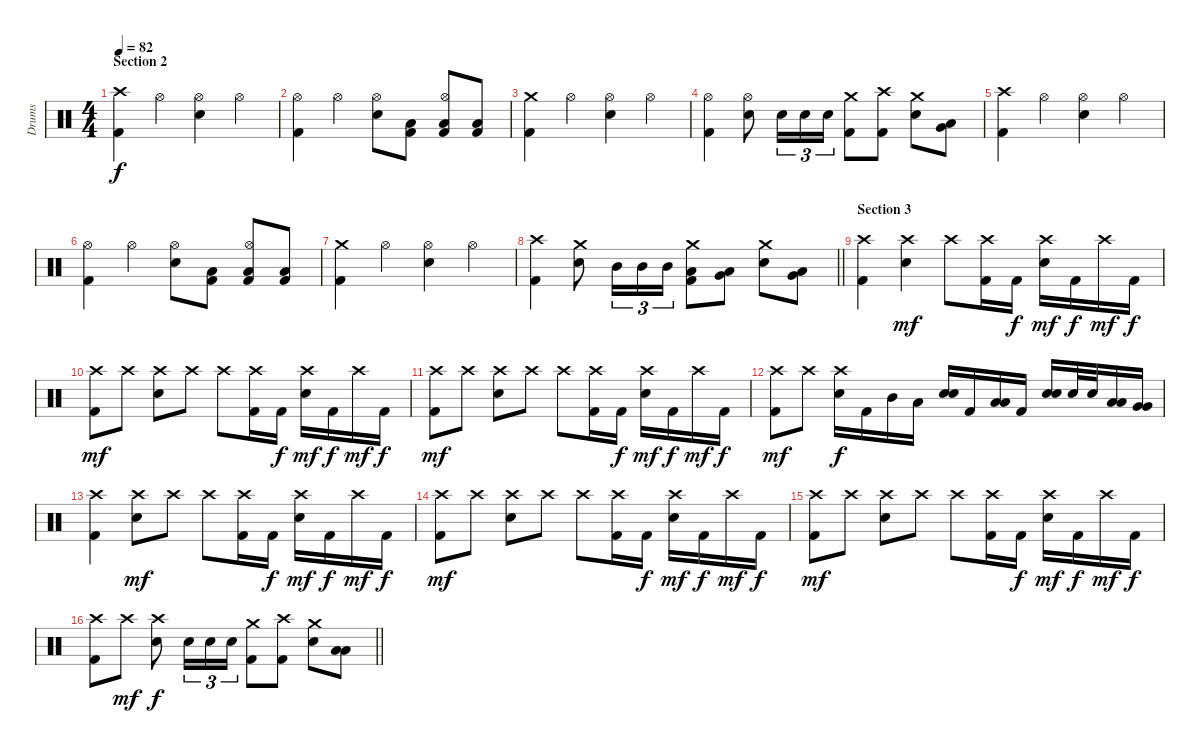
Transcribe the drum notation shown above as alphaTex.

\track ("Drums" "Drums") {instrument percussion}
\staff {score}
\articulation defaults
\ts (4 4)
\section ("" "Section 2")
\tempo 82
\clef neutral
\ks c
("Crash high (hit)" "Kick (hit) 2").4{dy f} "Hi-Hat (open)".4 ("Hi-Hat (open)" "Electric Snare (hit)").4 "Hi-Hat (open)".4 |
("Hi-Hat (open)" "Kick (hit) 2").4 "Hi-Hat (open)".4 ("Hi-Hat (open)" "Electric Snare (hit)").8 ("Low Tom (hit)" "Kick (hit) 2").8 ("Hi-Hat (open)" "Low Tom (hit)" "Kick (hit) 2").8 ("Low Tom (hit)" "Kick (hit) 2").8 |
("Crash medium (hit)" "Kick (hit) 2").4 "Hi-Hat (open)".4 ("Hi-Hat (open)" "Electric Snare (hit)").4 "Hi-Hat (open)".4 |
("Hi-Hat (open)" "Kick (hit) 2").4 ("Hi-Hat (open)" "Electric Snare (hit)").8 "Electric Snare (hit)".16{tu (3 2)} "Electric Snare (hit)".16{tu (3 2)} "Electric Snare (hit)".16{tu (3 2)} ("Crash medium (hit)" "Kick (hit) 2").8 ("Crash high (hit)" "Kick (hit) 2").8 ("Crash medium (hit)" "Electric Snare (hit)").8 ("Very Low Tom (hit)" "Low Floor Tom (hit)").8 |
("Crash high (hit)" "Kick (hit) 2").4 "Hi-Hat (open)".4 ("Hi-Hat (open)" "Electric Snare (hit)").4 "Hi-Hat (open)".4 |
("Hi-Hat (open)" "Kick (hit) 2").4 "Hi-Hat (open)".4 ("Hi-Hat (open)" "Electric Snare (hit)").8 ("Low Tom (hit)" "Kick (hit) 2").8 ("Hi-Hat (open)" "Low Tom (hit)" "Kick (hit) 2").8 ("Low Tom (hit)" "Kick (hit) 2").8 |
("Crash medium (hit)" "Kick (hit) 2").4 "Hi-Hat (open)".4 ("Hi-Hat (open)" "Electric Snare (hit)").4 "Hi-Hat (open)".4 |
\barLineRight lightlight
("Crash high (hit)" "Kick (hit) 2").4 ("Crash medium (hit)" "Electric Snare (hit)").8 "Mid Tom (hit)".16{tu (3 2)} "Mid Tom (hit)".16{tu (3 2)} "Mid Tom (hit)".16{tu (3 2)} ("Crash medium (hit)" "Low Tom (hit)" "Kick (hit) 2").8 ("Very Low Tom (hit)" "Low Floor Tom (hit)").8 ("Crash medium (hit)" "Electric Snare (hit)").8 ("Very Low Tom (hit)" "Low Floor Tom (hit)").8 |
\section ("" "Section 3")
("Crash high (hit)" "Kick (hit) 2").4 ("Crash high (hit)" "Electric Snare (hit)").4{dy mf} "Crash high (hit)".8 ("Crash high (hit)" "Kick (hit) 2").16 "Kick (hit) 2".16{dy f} ("Crash high (hit)" "Electric Snare (hit)").16{dy mf} "Kick (hit) 2".16{dy f} "Crash high (hit)".16{dy mf} "Kick (hit) 2".16{dy f} |
("Crash high (hit)" "Kick (hit) 2").8{dy mf} "Crash high (hit)".8 ("Crash high (hit)" "Electric Snare (hit)").8 "Crash high (hit)".8 "Crash high (hit)".8 ("Crash high (hit)" "Kick (hit) 2").16 "Kick (hit) 2".16{dy f} ("Crash high (hit)" "Electric Snare (hit)").16{dy mf} "Kick (hit) 2".16{dy f} "Crash high (hit)".16{dy mf} "Kick (hit) 2".16{dy f} |
("Crash high (hit)" "Kick (hit) 2").8{dy mf} "Crash high (hit)".8 ("Crash high (hit)" "Electric Snare (hit)").8 "Crash high (hit)".8 "Crash high (hit)".8 ("Crash high (hit)" "Kick (hit) 2").16 "Kick (hit) 2".16{dy f} ("Crash high (hit)" "Electric Snare (hit)").16{dy mf} "Kick (hit) 2".16{dy f} "Crash high (hit)".16{dy mf} "Kick (hit) 2".16{dy f} |
("Crash high (hit)" "Kick (hit) 2").8{dy mf} "Crash high (hit)".8 ("Crash high (hit)" "Electric Snare (hit)").16{dy f} "Kick (hit) 2".16 "Mid Tom (hit)".16 "Low Tom (hit)".16 ("Electric Snare (hit)" "Electric Snare (hit)").16{bu 60} "Kick (hit) 2".16 ("Low Tom (hit)" "Low Tom (hit)").16{bu 60} "Kick (hit) 2".16 ("Electric Snare (hit)" "Electric Snare (hit)").16{bu 60} "Electric Snare (hit)".32 "Electric Snare (hit)".32 ("Low Tom (hit)" "Low Tom (hit)").16{bu 60} ("Very Low Tom (hit)" "Very Low Tom (hit)").16{bu 60} |
("Crash high (hit)" "Kick (hit) 2").4 ("Crash high (hit)" "Electric Snare (hit)").8{dy mf} "Crash high (hit)".8 "Crash high (hit)".8 ("Crash high (hit)" "Kick (hit) 2").16 "Kick (hit) 2".16{dy f} ("Crash high (hit)" "Electric Snare (hit)").16{dy mf} "Kick (hit) 2".16{dy f} "Crash high (hit)".16{dy mf} "Kick (hit) 2".16{dy f} |
("Crash high (hit)" "Kick (hit) 2").8{dy mf} "Crash high (hit)".8 ("Crash high (hit)" "Electric Snare (hit)").8 "Crash high (hit)".8 "Crash high (hit)".8 ("Crash high (hit)" "Kick (hit) 2").16 "Kick (hit) 2".16{dy f} ("Crash high (hit)" "Electric Snare (hit)").16{dy mf} "Kick (hit) 2".16{dy f} "Crash high (hit)".16{dy mf} "Kick (hit) 2".16{dy f} |
("Crash high (hit)" "Kick (hit) 2").8{dy mf} "Crash high (hit)".8 ("Crash high (hit)" "Electric Snare (hit)").8 "Crash high (hit)".8 "Crash high (hit)".8 ("Crash high (hit)" "Kick (hit) 2").16 "Kick (hit) 2".16{dy f} ("Crash high (hit)" "Electric Snare (hit)").16{dy mf} "Kick (hit) 2".16{dy f} "Crash high (hit)".16{dy mf} "Kick (hit) 2".16{dy f} |
\barLineRight lightlight
("Crash high (hit)" "Kick (hit) 2").8 "Crash high (hit)".8{dy mf} ("Crash high (hit)" "Electric Snare (hit)").8{dy f} "Electric Snare (hit)".16{tu (3 2)} "Electric Snare (hit)".16{tu (3 2)} "Electric Snare (hit)".16{tu (3 2)} ("Crash medium (hit)" "Kick (hit) 2").8 ("Crash high (hit)" "Kick (hit) 2").8 ("Crash medium (hit)" "Electric Snare (hit)").8 ("Low Tom (hit)" "Low Floor Tom (hit)").8
